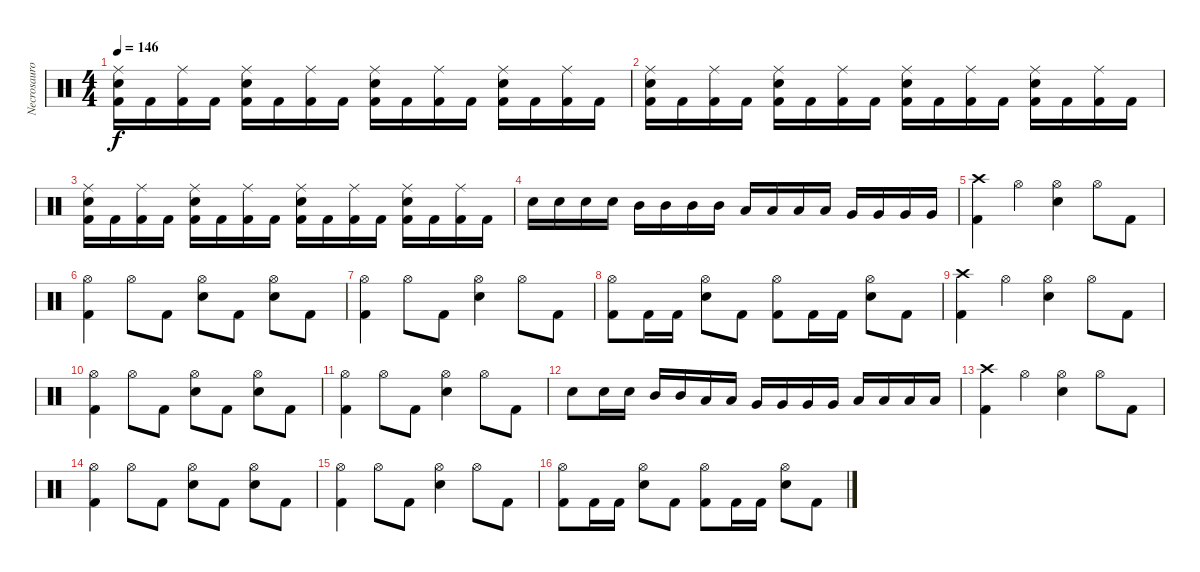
\track ("Necrosauron" "Necrosauro") {instrument percussion}
\staff {score}
\articulation defaults
\ts (4 4)
\tempo 146
\clef neutral
\ks c
("Ride (middle)" "Snare (hit) 2" "Kick (hit) 2").16{dy f} "Kick (hit) 2".16 ("Ride (middle)" "Kick (hit) 2").16 "Kick (hit) 2".16 ("Ride (middle)" "Snare (hit) 2" "Kick (hit) 2").16 "Kick (hit) 2".16 ("Ride (middle)" "Kick (hit) 2").16 "Kick (hit) 2".16 ("Ride (middle)" "Snare (hit) 2" "Kick (hit) 2").16 "Kick (hit) 2".16 ("Ride (middle)" "Kick (hit) 2").16 "Kick (hit) 2".16 ("Ride (middle)" "Snare (hit) 2" "Kick (hit) 2").16 "Kick (hit) 2".16 ("Ride (middle)" "Kick (hit) 2").16 "Kick (hit) 2".16 |
("Ride (middle)" "Snare (hit) 2" "Kick (hit) 2").16 "Kick (hit) 2".16 ("Ride (middle)" "Kick (hit) 2").16 "Kick (hit) 2".16 ("Ride (middle)" "Snare (hit) 2" "Kick (hit) 2").16 "Kick (hit) 2".16 ("Ride (middle)" "Kick (hit) 2").16 "Kick (hit) 2".16 ("Ride (middle)" "Snare (hit) 2" "Kick (hit) 2").16 "Kick (hit) 2".16 ("Ride (middle)" "Kick (hit) 2").16 "Kick (hit) 2".16 ("Ride (middle)" "Snare (hit) 2" "Kick (hit) 2").16 "Kick (hit) 2".16 ("Ride (middle)" "Kick (hit) 2").16 "Kick (hit) 2".16 |
("Ride (middle)" "Snare (hit) 2" "Kick (hit) 2").16 "Kick (hit) 2".16 ("Ride (middle)" "Kick (hit) 2").16 "Kick (hit) 2".16 ("Ride (middle)" "Snare (hit) 2" "Kick (hit) 2").16 "Kick (hit) 2".16 ("Ride (middle)" "Kick (hit) 2").16 "Kick (hit) 2".16 ("Ride (middle)" "Snare (hit) 2" "Kick (hit) 2").16 "Kick (hit) 2".16 ("Ride (middle)" "Kick (hit) 2").16 "Kick (hit) 2".16 ("Ride (middle)" "Snare (hit) 2" "Kick (hit) 2").16 "Kick (hit) 2".16 ("Ride (middle)" "Kick (hit) 2").16 "Kick (hit) 2".16 |
"Snare (hit) 2".16 "Snare (hit) 2".16 "Snare (hit) 2".16 "Snare (hit) 2".16 "Mid Tom (hit)".16 "Mid Tom (hit)".16 "Mid Tom (hit)".16 "Mid Tom (hit)".16 "Low Tom (hit)".16 "Low Tom (hit)".16 "Low Tom (hit)".16 "Low Tom (hit)".16 "Very Low Tom (hit)".16 "Very Low Tom (hit)".16 "Very Low Tom (hit)".16 "Very Low Tom (hit)".16 |
("Crash high (hit)" "Kick (hit) 2").4 "Hi-Hat (open)".4 ("Hi-Hat (open)" "Snare (hit) 2").4 "Hi-Hat (open)".8 "Kick (hit) 2".8 |
("Hi-Hat (open)" "Kick (hit) 2").4 "Hi-Hat (open)".8 "Kick (hit) 2".8 ("Hi-Hat (open)" "Snare (hit) 2").8 "Kick (hit) 2".8 ("Hi-Hat (open)" "Snare (hit) 2").8 "Kick (hit) 2".8 |
("Hi-Hat (open)" "Kick (hit) 2").4 "Hi-Hat (open)".8 "Kick (hit) 2".8 ("Hi-Hat (open)" "Snare (hit) 2").4 "Hi-Hat (open)".8 "Kick (hit) 2".8 |
("Hi-Hat (open)" "Kick (hit) 2").8 "Kick (hit) 2".16 "Kick (hit) 2".16 ("Hi-Hat (open)" "Snare (hit) 2").8 "Kick (hit) 2".8 ("Hi-Hat (open)" "Kick (hit) 2").8 "Kick (hit) 2".16 "Kick (hit) 2".16 ("Hi-Hat (open)" "Snare (hit) 2").8 "Kick (hit) 2".8 |
("Crash high (hit)" "Kick (hit) 2").4 "Hi-Hat (open)".4 ("Hi-Hat (open)" "Snare (hit) 2").4 "Hi-Hat (open)".8 "Kick (hit) 2".8 |
("Hi-Hat (open)" "Kick (hit) 2").4 "Hi-Hat (open)".8 "Kick (hit) 2".8 ("Hi-Hat (open)" "Snare (hit) 2").8 "Kick (hit) 2".8 ("Hi-Hat (open)" "Snare (hit) 2").8 "Kick (hit) 2".8 |
("Hi-Hat (open)" "Kick (hit) 2").4 "Hi-Hat (open)".8 "Kick (hit) 2".8 ("Hi-Hat (open)" "Snare (hit) 2").4 "Hi-Hat (open)".8 "Kick (hit) 2".8 |
"Snare (hit) 2".8 "Snare (hit) 2".16 "Snare (hit) 2".16 "Mid Tom (hit)".16 "Mid Tom (hit)".16 "Low Tom (hit)".16 "Low Tom (hit)".16 "Very Low Tom (hit)".16 "Very Low Tom (hit)".16 "Very Low Tom (hit)".16 "Very Low Tom (hit)".16 "Low Floor Tom (hit)".16 "Low Floor Tom (hit)".16 "Low Floor Tom (hit)".16 "Low Floor Tom (hit)".16 |
("Crash high (hit)" "Kick (hit) 2").4 "Hi-Hat (open)".4 ("Hi-Hat (open)" "Snare (hit) 2").4 "Hi-Hat (open)".8 "Kick (hit) 2".8 |
("Hi-Hat (open)" "Kick (hit) 2").4 "Hi-Hat (open)".8 "Kick (hit) 2".8 ("Hi-Hat (open)" "Snare (hit) 2").8 "Kick (hit) 2".8 ("Hi-Hat (open)" "Snare (hit) 2").8 "Kick (hit) 2".8 |
("Hi-Hat (open)" "Kick (hit) 2").4 "Hi-Hat (open)".8 "Kick (hit) 2".8 ("Hi-Hat (open)" "Snare (hit) 2").4 "Hi-Hat (open)".8 "Kick (hit) 2".8 |
("Hi-Hat (open)" "Kick (hit) 2").8 "Kick (hit) 2".16 "Kick (hit) 2".16 ("Hi-Hat (open)" "Snare (hit) 2").8 "Kick (hit) 2".8 ("Hi-Hat (open)" "Kick (hit) 2").8 "Kick (hit) 2".16 "Kick (hit) 2".16 ("Hi-Hat (open)" "Snare (hit) 2").8 "Kick (hit) 2".8
